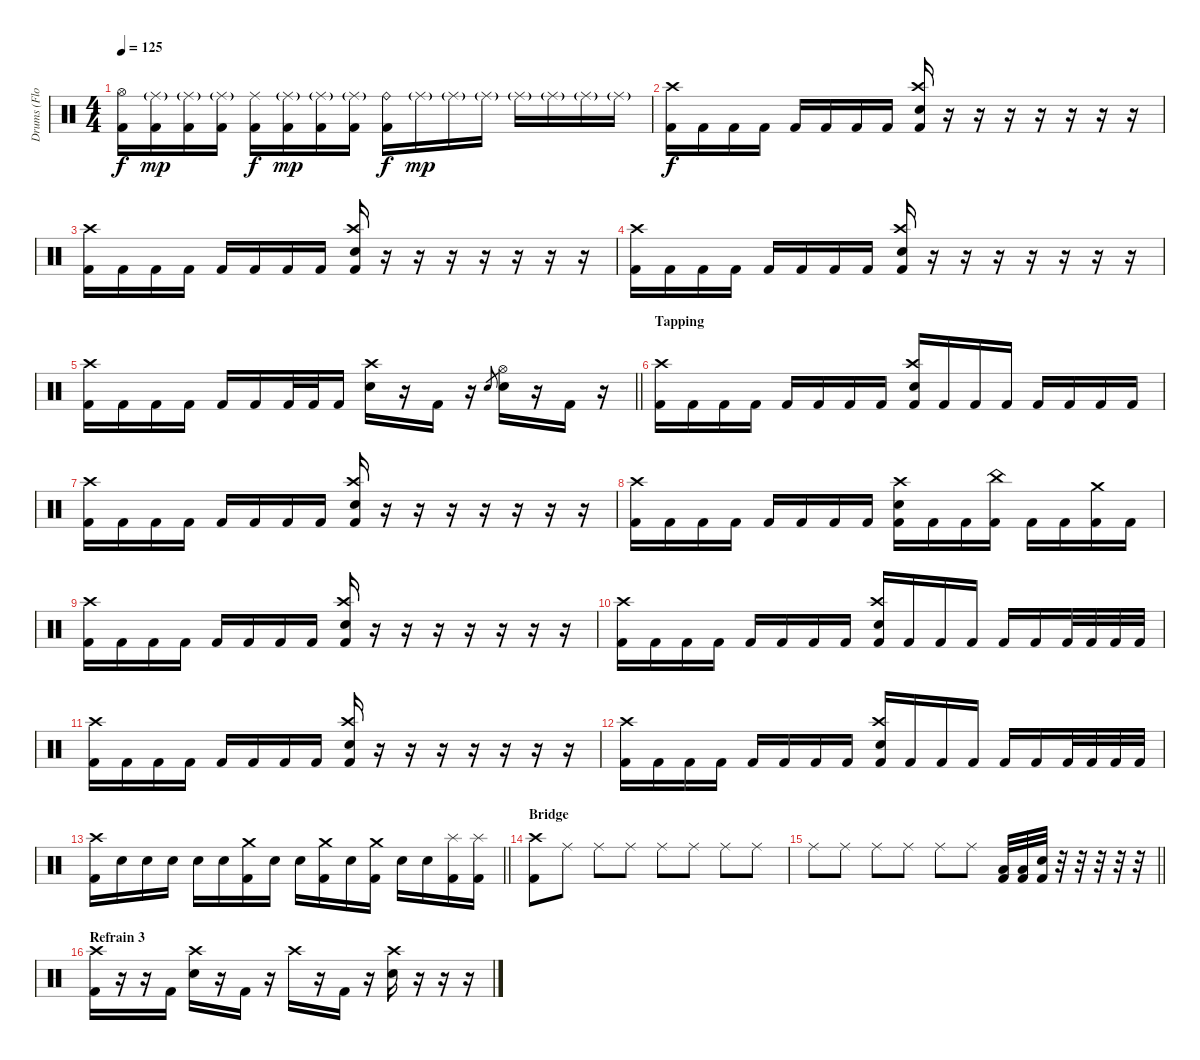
\track ("Drums (Floboter)" "Drums (Flo") {instrument percussion}
\staff {score}
\articulation defaults
\ts (4 4)
\tempo 125
\clef neutral
\ks c
("Hi-Hat (open)" "Kick (hit) 2").16{dy f} ("Ride (middle)"{g} "Kick (hit) 2").16{dy mp} ("Ride (middle)"{g} "Kick (hit) 2").16 ("Ride (middle)"{g} "Kick (hit) 2").16 ("Ride (middle)" "Kick (hit) 2").16{dy f} ("Ride (middle)"{g} "Kick (hit) 2").16{dy mp} ("Ride (middle)"{g} "Kick (hit) 2").16 ("Ride (middle)"{g} "Kick (hit) 2").16 ("Ride (bell)" "Kick (hit) 2").16{dy f} "Ride (middle)"{g}.16{dy mp} "Ride (middle)"{g}.16 "Ride (middle)"{g}.16 "Ride (middle)"{g}.16 "Ride (middle)"{g}.16 "Ride (middle)"{g}.16 "Ride (middle)"{g}.16 |
("Crash high (hit)" "Kick (hit) 2").16{dy f} "Kick (hit) 2".16 "Kick (hit) 2".16 "Kick (hit) 2".16 "Kick (hit) 2".16 "Kick (hit) 2".16 "Kick (hit) 2".16 "Kick (hit) 2".16 ("Crash high (hit)" "Snare (hit) 2" "Kick (hit) 2").16 r.16 r.16 r.16 r.16 r.16 r.16 r.16 |
("Crash high (hit)" "Kick (hit) 2").16 "Kick (hit) 2".16 "Kick (hit) 2".16 "Kick (hit) 2".16 "Kick (hit) 2".16 "Kick (hit) 2".16 "Kick (hit) 2".16 "Kick (hit) 2".16 ("Crash high (hit)" "Snare (hit) 2" "Kick (hit) 2").16 r.16 r.16 r.16 r.16 r.16 r.16 r.16 |
("Crash high (hit)" "Kick (hit) 2").16 "Kick (hit) 2".16 "Kick (hit) 2".16 "Kick (hit) 2".16 "Kick (hit) 2".16 "Kick (hit) 2".16 "Kick (hit) 2".16 "Kick (hit) 2".16 ("Crash high (hit)" "Snare (hit) 2" "Kick (hit) 2").16 r.16 r.16 r.16 r.16 r.16 r.16 r.16 |
\barLineRight lightlight
("Crash high (hit)" "Kick (hit) 2").16 "Kick (hit) 2".16 "Kick (hit) 2".16 "Kick (hit) 2".16 "Kick (hit) 2".16 "Kick (hit) 2".16 "Kick (hit) 2".32 "Kick (hit) 2".32 "Kick (hit) 2".16 ("Crash high (hit)" "Snare (hit) 2").16 r.16 "Kick (hit) 2".16 r.16 "Snare (hit) 2".8{gr} ("Hi-Hat (open)" "Snare (hit) 2").16 r.16 "Kick (hit) 2".16 r.16 |
\section ("" "Tapping")
("Crash high (hit)" "Kick (hit) 2").16 "Kick (hit) 2".16 "Kick (hit) 2".16 "Kick (hit) 2".16 "Kick (hit) 2".16 "Kick (hit) 2".16 "Kick (hit) 2".16 "Kick (hit) 2".16 ("Crash high (hit)" "Snare (hit) 2" "Kick (hit) 2").16 "Kick (hit) 2".16 "Kick (hit) 2".16 "Kick (hit) 2".16 "Kick (hit) 2".16 "Kick (hit) 2".16 "Kick (hit) 2".16 "Kick (hit) 2".16 |
("Crash high (hit)" "Kick (hit) 2").16 "Kick (hit) 2".16 "Kick (hit) 2".16 "Kick (hit) 2".16 "Kick (hit) 2".16 "Kick (hit) 2".16 "Kick (hit) 2".16 "Kick (hit) 2".16 ("Crash high (hit)" "Snare (hit) 2" "Kick (hit) 2").16 r.16 r.16 r.16 r.16 r.16 r.16 r.16 |
("Crash high (hit)" "Kick (hit) 2").16 "Kick (hit) 2".16 "Kick (hit) 2".16 "Kick (hit) 2".16 "Kick (hit) 2".16 "Kick (hit) 2".16 "Kick (hit) 2".16 "Kick (hit) 2".16 ("Crash high (hit)" "Snare (hit) 2" "Kick (hit) 2").16 "Kick (hit) 2".16 "Kick (hit) 2".16 ("China (hit)" "Kick (hit) 2").16 "Kick (hit) 2".16 "Kick (hit) 2".16 ("Crash medium (hit)" "Kick (hit) 2").16 "Kick (hit) 2".16 |
("Crash high (hit)" "Kick (hit) 2").16 "Kick (hit) 2".16 "Kick (hit) 2".16 "Kick (hit) 2".16 "Kick (hit) 2".16 "Kick (hit) 2".16 "Kick (hit) 2".16 "Kick (hit) 2".16 ("Crash high (hit)" "Snare (hit) 2" "Kick (hit) 2").16 r.16 r.16 r.16 r.16 r.16 r.16 r.16 |
("Crash high (hit)" "Kick (hit) 2").16 "Kick (hit) 2".16 "Kick (hit) 2".16 "Kick (hit) 2".16 "Kick (hit) 2".16 "Kick (hit) 2".16 "Kick (hit) 2".16 "Kick (hit) 2".16 ("Crash high (hit)" "Snare (hit) 2" "Kick (hit) 2").16 "Kick (hit) 2".16 "Kick (hit) 2".16 "Kick (hit) 2".16 "Kick (hit) 2".16 "Kick (hit) 2".16 "Kick (hit) 2".32 "Kick (hit) 2".32 "Kick (hit) 2".32 "Kick (hit) 2".32 |
("Crash high (hit)" "Kick (hit) 2").16 "Kick (hit) 2".16 "Kick (hit) 2".16 "Kick (hit) 2".16 "Kick (hit) 2".16 "Kick (hit) 2".16 "Kick (hit) 2".16 "Kick (hit) 2".16 ("Crash high (hit)" "Snare (hit) 2" "Kick (hit) 2").16 r.16 r.16 r.16 r.16 r.16 r.16 r.16 |
("Crash high (hit)" "Kick (hit) 2").16 "Kick (hit) 2".16 "Kick (hit) 2".16 "Kick (hit) 2".16 "Kick (hit) 2".16 "Kick (hit) 2".16 "Kick (hit) 2".16 "Kick (hit) 2".16 ("Crash high (hit)" "Snare (hit) 2" "Kick (hit) 2").16 "Kick (hit) 2".16 "Kick (hit) 2".16 "Kick (hit) 2".16 "Kick (hit) 2".16 "Kick (hit) 2".16 "Kick (hit) 2".32 "Kick (hit) 2".32 "Kick (hit) 2".32 "Kick (hit) 2".32 |
\barLineRight lightlight
("Crash high (hit)" "Kick (hit) 2").16 "Snare (hit) 2".16 "Snare (hit) 2".16 "Snare (hit) 2".16 "Snare (hit) 2".16 "Snare (hit) 2".16 ("Crash medium (hit)" "Kick (hit) 2").16 "Snare (hit) 2".16 "Snare (hit) 2".16 ("Crash medium (hit)" "Kick (hit) 2").16 "Snare (hit) 2".16 ("Crash medium (hit)" "Kick (hit) 2").16 "Snare (hit) 2".16 "Snare (hit) 2".16 ("Splash (hit)" "Kick (hit) 2").16 ("Splash (hit)" "Kick (hit) 2").16 |
\section ("" "Bridge")
("Crash high (hit)" "Kick (hit) 2").8 "Ride (middle)".8 "Ride (middle)".8 "Ride (middle)".8 "Ride (middle)".8 "Ride (middle)".8 "Ride (middle)".8 "Ride (middle)".8 |
\barLineRight lightlight "Ride (middle)".8 "Ride (middle)".8 "Ride (middle)".8 "Ride (middle)".8 "Ride (middle)".8 "Ride (middle)".8
("Low Tom (hit)" "Kick (hit) 2").32 ("Low Floor Tom (hit)" "Kick (hit) 2").32 ("Snare (hit) 2" "Kick (hit) 2").32 r.32 r.32 r.32 r.32 r.32 |
\section ("" "Refrain 3")
("Crash high (hit)" "Kick (hit) 2").16 r.16 r.16 "Kick (hit) 2".16 ("Crash high (hit)" "Snare (hit) 2").16 r.16 "Kick (hit) 2".16 r.16 "Crash high (hit)".16 r.16 "Kick (hit) 2".16 r.16 ("Crash high (hit)" "Snare (hit) 2").16 r.16 r.16 r.16
